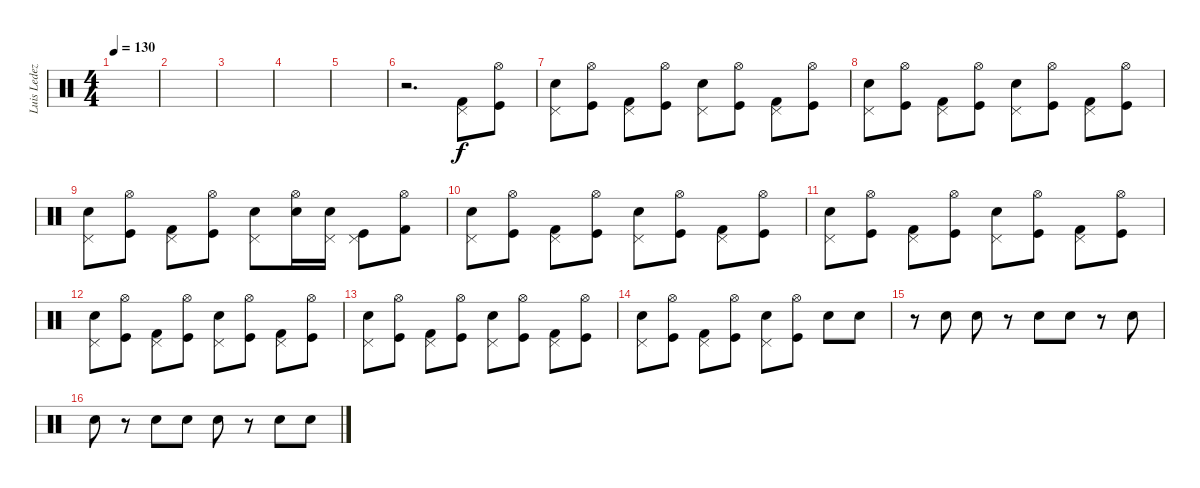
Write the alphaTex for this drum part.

\track ("Luis Ledezma (bateria)" "Luis Ledez") {instrument percussion}
\staff {score}
\articulation defaults
\ts (4 4)
\tempo 130
\clef neutral
\ks c
|
|
|
|
|
r.2{d volume 16} ("Pedal Hi-Hat (hit)" "Kick (hit) 2").8 ("Hi-Hat (open)" "Kick (hit)").8 |
("Pedal Hi-Hat (hit)" "Snare (hit) 2").8 ("Hi-Hat (open)" "Kick (hit)").8 ("Pedal Hi-Hat (hit)" "Kick (hit) 2").8 ("Hi-Hat (open)" "Kick (hit)").8 ("Pedal Hi-Hat (hit)" "Snare (hit) 2").8 ("Hi-Hat (open)" "Kick (hit)").8 ("Pedal Hi-Hat (hit)" "Kick (hit) 2").8 ("Hi-Hat (open)" "Kick (hit)").8 |
("Pedal Hi-Hat (hit)" "Snare (hit) 2").8 ("Hi-Hat (open)" "Kick (hit)").8 ("Pedal Hi-Hat (hit)" "Kick (hit) 2").8 ("Hi-Hat (open)" "Kick (hit)").8 ("Pedal Hi-Hat (hit)" "Snare (hit) 2").8 ("Hi-Hat (open)" "Kick (hit)").8 ("Pedal Hi-Hat (hit)" "Kick (hit) 2").8 ("Hi-Hat (open)" "Kick (hit)").8 |
("Pedal Hi-Hat (hit)" "Snare (hit) 2").8 ("Hi-Hat (open)" "Kick (hit)").8 ("Pedal Hi-Hat (hit)" "Kick (hit) 2").8 ("Hi-Hat (open)" "Kick (hit)").8 ("Pedal Hi-Hat (hit)" "Snare (hit) 2").8 ("Hi-Hat (open)" "Snare (hit) 2").16 ("Pedal Hi-Hat (hit)" "Snare (hit) 2").16 ("Pedal Hi-Hat (hit)" "Kick (hit)").8 ("Hi-Hat (open)" "Kick (hit) 2").8 |
("Pedal Hi-Hat (hit)" "Snare (hit) 2").8 ("Hi-Hat (open)" "Kick (hit)").8 ("Pedal Hi-Hat (hit)" "Kick (hit) 2").8 ("Hi-Hat (open)" "Kick (hit)").8 ("Pedal Hi-Hat (hit)" "Snare (hit) 2").8 ("Hi-Hat (open)" "Kick (hit)").8 ("Pedal Hi-Hat (hit)" "Kick (hit) 2").8 ("Hi-Hat (open)" "Kick (hit)").8 |
("Pedal Hi-Hat (hit)" "Snare (hit) 2").8 ("Hi-Hat (open)" "Kick (hit)").8 ("Pedal Hi-Hat (hit)" "Kick (hit) 2").8 ("Hi-Hat (open)" "Kick (hit)").8 ("Pedal Hi-Hat (hit)" "Snare (hit) 2").8 ("Hi-Hat (open)" "Kick (hit)").8 ("Pedal Hi-Hat (hit)" "Kick (hit) 2").8 ("Hi-Hat (open)" "Kick (hit)").8 |
("Pedal Hi-Hat (hit)" "Snare (hit) 2").8 ("Hi-Hat (open)" "Kick (hit)").8 ("Pedal Hi-Hat (hit)" "Kick (hit) 2").8 ("Hi-Hat (open)" "Kick (hit)").8 ("Pedal Hi-Hat (hit)" "Snare (hit) 2").8 ("Hi-Hat (open)" "Kick (hit)").8 ("Pedal Hi-Hat (hit)" "Kick (hit) 2").8 ("Hi-Hat (open)" "Kick (hit)").8 |
("Pedal Hi-Hat (hit)" "Snare (hit) 2").8 ("Hi-Hat (open)" "Kick (hit)").8 ("Pedal Hi-Hat (hit)" "Kick (hit) 2").8 ("Hi-Hat (open)" "Kick (hit)").8 ("Pedal Hi-Hat (hit)" "Snare (hit) 2").8 ("Hi-Hat (open)" "Kick (hit)").8 ("Pedal Hi-Hat (hit)" "Kick (hit) 2").8 ("Hi-Hat (open)" "Kick (hit)").8 |
("Pedal Hi-Hat (hit)" "Snare (hit) 2").8 ("Hi-Hat (open)" "Kick (hit)").8 ("Pedal Hi-Hat (hit)" "Kick (hit) 2").8 ("Hi-Hat (open)" "Kick (hit)").8 ("Pedal Hi-Hat (hit)" "Snare (hit) 2").8 ("Hi-Hat (open)" "Kick (hit)").8 "Snare (hit) 2".8 "Snare (hit) 2".8 |
r.8 "Snare (hit) 2".8 "Snare (hit) 2".8 r.8 "Snare (hit) 2".8 "Snare (hit) 2".8 r.8 "Snare (hit) 2".8 |
"Snare (hit) 2".8 r.8 "Snare (hit) 2".8 "Snare (hit) 2".8 "Snare (hit) 2".8 r.8 "Snare (hit) 2".8 "Snare (hit) 2".8
